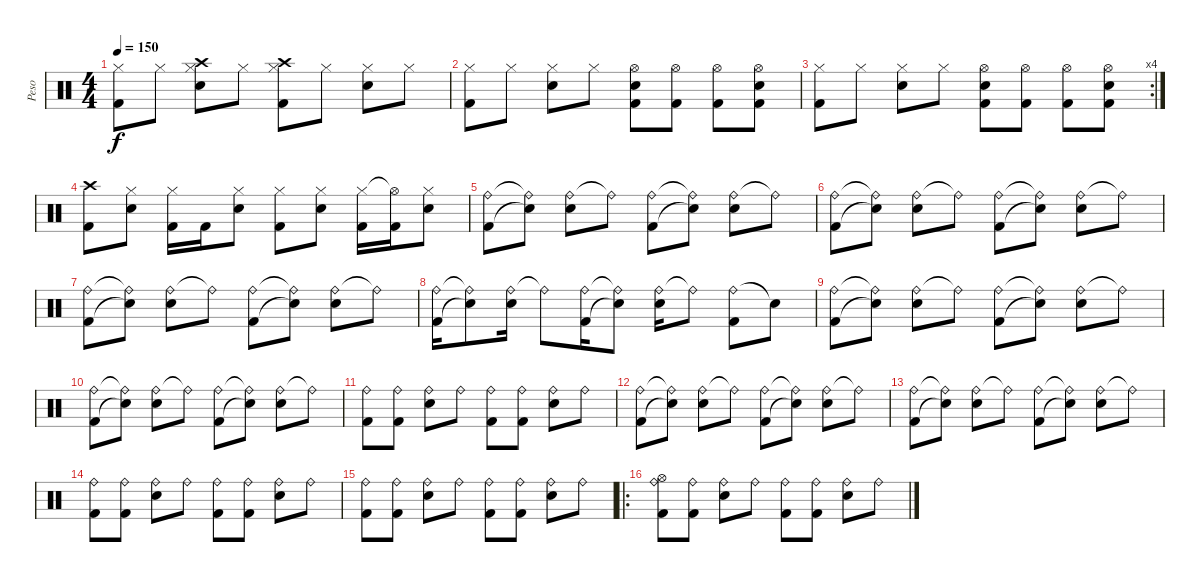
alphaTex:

\track ("Peso" "Peso") {instrument percussion}
\staff {score}
\articulation defaults
\ts (4 4)
\tempo 150
\clef neutral
\ks c
("Hi-Hat (closed)" "Kick (hit) 2").8{dy f} "Hi-Hat (closed)".8 ("Crash high (hit)" "Hi-Hat (closed)" "Snare (hit) 2").8 "Hi-Hat (closed)".8 ("Crash high (hit)" "Hi-Hat (closed)" "Kick (hit) 2").8 "Hi-Hat (closed)".8 ("Hi-Hat (closed)" "Snare (hit) 2").8 "Hi-Hat (closed)".8 |
("Hi-Hat (closed)" "Kick (hit) 2").8 "Hi-Hat (closed)".8 ("Hi-Hat (closed)" "Snare (hit) 2").8 "Hi-Hat (closed)".8 ("Hi-Hat (open)" "Snare (hit) 2" "Kick (hit) 2").8 ("Hi-Hat (open)" "Kick (hit) 2").8 ("Hi-Hat (open)" "Kick (hit) 2").8 ("Hi-Hat (open)" "Snare (hit) 2" "Kick (hit) 2").8 |
\rc 4
("Hi-Hat (closed)" "Kick (hit) 2").8 "Hi-Hat (closed)".8 ("Hi-Hat (closed)" "Snare (hit) 2").8 "Hi-Hat (closed)".8 ("Hi-Hat (open)" "Snare (hit) 2" "Kick (hit) 2").8 ("Hi-Hat (open)" "Kick (hit) 2").8 ("Hi-Hat (open)" "Kick (hit) 2").8 ("Hi-Hat (open)" "Snare (hit) 2" "Kick (hit) 2").8 |
("Crash high (hit)" "Kick (hit) 2").8 ("Hi-Hat (closed)" "Snare (hit) 2").8 ("Hi-Hat (closed)" "Kick (hit) 2").16 "Kick (hit) 2".16 ("Hi-Hat (closed)" "Snare (hit) 2").8 ("Hi-Hat (closed)" "Kick (hit) 2").8 ("Hi-Hat (closed)" "Snare (hit) 2").8 ("Hi-Hat (closed)" "Kick (hit) 2").16 ("Hi-Hat (open)"{t} "Kick (hit) 2").16 ("Hi-Hat (closed)" "Snare (hit) 2").8 |
("Ride (bell)" "Kick (hit) 2").8 ("Ride (bell)"{t} "Snare (hit)"{t}).8 ("Ride (bell)" "Snare (hit) 2").8 "Ride (bell)"{t}.8 ("Ride (bell)" "Kick (hit) 2").8 ("Ride (bell)"{t} "Snare (hit)"{t}).8 ("Ride (bell)" "Snare (hit) 2").8 "Ride (bell)"{t}.8 |
("Ride (bell)" "Kick (hit) 2").8 ("Ride (bell)"{t} "Snare (hit)"{t}).8 ("Ride (bell)" "Snare (hit) 2").8 "Ride (bell)"{t}.8 ("Ride (bell)" "Kick (hit) 2").8 ("Ride (bell)"{t} "Snare (hit)"{t}).8 ("Ride (bell)" "Snare (hit) 2").8 "Ride (bell)"{t}.8 |
("Ride (bell)" "Kick (hit) 2").8 ("Ride (bell)"{t} "Snare (hit)"{t}).8 ("Ride (bell)" "Snare (hit) 2").8 "Ride (bell)"{t}.8 ("Ride (bell)" "Kick (hit) 2").8 ("Ride (bell)"{t} "Snare (hit)"{t}).8 ("Ride (bell)" "Snare (hit) 2").8 "Ride (bell)"{t}.8 |
("Ride (bell)" "Kick (hit) 2").16 ("Ride (bell)"{t} "Snare (hit)"{t}).8 ("Ride (bell)" "Snare (hit) 2").16 "Ride (bell)"{t}.8 ("Ride (bell)" "Kick (hit) 2").16 ("Ride (bell)"{t} "Snare (hit)"{t}).8 ("Ride (bell)" "Snare (hit) 2").16 "Ride (bell)"{t}.8 ("Ride (bell)" "Kick (hit) 2").8 "Snare (hit)"{t}.8 |
("Ride (bell)" "Kick (hit) 2").8 ("Ride (bell)"{t} "Snare (hit)"{t}).8 ("Ride (bell)" "Snare (hit) 2").8 "Ride (bell)"{t}.8 ("Ride (bell)" "Kick (hit) 2").8 ("Ride (bell)"{t} "Snare (hit)"{t}).8 ("Ride (bell)" "Snare (hit) 2").8 "Ride (bell)"{t}.8 |
("Ride (bell)" "Kick (hit) 2").8 ("Ride (bell)"{t} "Snare (hit)"{t}).8 ("Ride (bell)" "Snare (hit) 2").8 "Ride (bell)"{t}.8 ("Ride (bell)" "Kick (hit) 2").8 ("Ride (bell)"{t} "Snare (hit)"{t}).8 ("Ride (bell)" "Snare (hit) 2").8 "Ride (bell)"{t}.8 |
("Ride (bell)" "Kick (hit) 2").8 ("Ride (bell)"{x} "Kick (hit) 2").8 ("Ride (bell)" "Snare (hit) 2").8 "Ride (bell)"{x}.8 ("Ride (bell)" "Kick (hit) 2").8 ("Ride (bell)"{x} "Kick (hit) 2").8 ("Ride (bell)" "Snare (hit) 2").8 "Ride (bell)"{x}.8 |
("Ride (bell)" "Kick (hit) 2").8 ("Ride (bell)"{t} "Snare (hit)"{t}).8 ("Ride (bell)" "Snare (hit) 2").8 "Ride (bell)"{t}.8 ("Ride (bell)" "Kick (hit) 2").8 ("Ride (bell)"{t} "Snare (hit)"{t}).8 ("Ride (bell)" "Snare (hit) 2").8 "Ride (bell)"{t}.8 |
("Ride (bell)" "Kick (hit) 2").8 ("Ride (bell)"{t} "Snare (hit)"{t}).8 ("Ride (bell)" "Snare (hit) 2").8 "Ride (bell)"{t}.8 ("Ride (bell)" "Kick (hit) 2").8 ("Ride (bell)"{t} "Snare (hit)"{t}).8 ("Ride (bell)" "Snare (hit) 2").8 "Ride (bell)"{t}.8 |
("Ride (bell)" "Kick (hit) 2").8 ("Ride (bell)"{x} "Kick (hit) 2").8 ("Ride (bell)" "Snare (hit) 2").8 "Ride (bell)"{x}.8 ("Ride (bell)" "Kick (hit) 2").8 ("Ride (bell)"{x} "Kick (hit) 2").8 ("Ride (bell)" "Snare (hit) 2").8 "Ride (bell)"{x}.8 |
("Ride (bell)" "Kick (hit) 2").8 ("Ride (bell)"{x} "Kick (hit) 2").8 ("Ride (bell)" "Snare (hit) 2").8 "Ride (bell)"{x}.8 ("Ride (bell)" "Kick (hit) 2").8 ("Ride (bell)"{x} "Kick (hit) 2").8 ("Ride (bell)" "Snare (hit) 2").8 "Ride (bell)"{x}.8 |
\ro
("Hi-Hat (open)" "Ride (bell)" "Kick (hit) 2").8 ("Ride (bell)"{x} "Kick (hit) 2").8 ("Ride (bell)" "Snare (hit) 2").8 "Ride (bell)"{x}.8 ("Ride (bell)" "Kick (hit) 2").8 ("Ride (bell)"{x} "Kick (hit) 2").8 ("Ride (bell)" "Snare (hit) 2").8 "Ride (bell)"{x}.8
